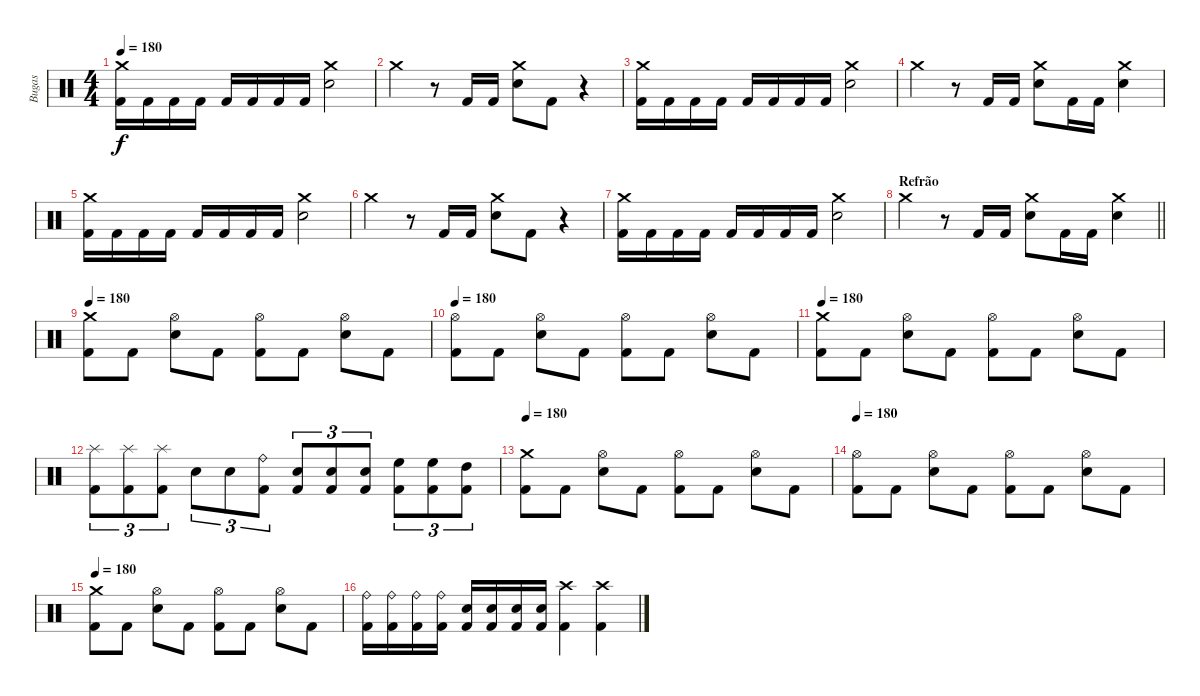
\track ("Bugas" "Bugas") {instrument percussion}
\staff {score}
\articulation defaults
\ts (4 4)
\tempo 180
\clef neutral
\ks c
("Crash medium (hit)" "Kick (hit) 2").16{dy f} "Kick (hit) 2".16 "Kick (hit) 2".16 "Kick (hit) 2".16 "Kick (hit) 2".16 "Kick (hit) 2".16 "Kick (hit) 2".16 "Kick (hit) 2".16 ("Crash medium (hit)" "Electric Snare (hit)").2 |
"Crash medium (hit)".4 r.8 "Kick (hit) 2".16 "Kick (hit) 2".16 ("Crash medium (hit)" "Electric Snare (hit)").8 "Kick (hit) 2".8 r.4 |
("Crash medium (hit)" "Kick (hit) 2").16 "Kick (hit) 2".16 "Kick (hit) 2".16 "Kick (hit) 2".16 "Kick (hit) 2".16 "Kick (hit) 2".16 "Kick (hit) 2".16 "Kick (hit) 2".16 ("Crash medium (hit)" "Electric Snare (hit)").2 |
"Crash medium (hit)".4 r.8 "Kick (hit) 2".16 "Kick (hit) 2".16 ("Crash medium (hit)" "Electric Snare (hit)").8 "Kick (hit) 2".16 "Kick (hit) 2".16 ("Crash medium (hit)" "Electric Snare (hit)").4 |
("Crash medium (hit)" "Kick (hit) 2").16 "Kick (hit) 2".16 "Kick (hit) 2".16 "Kick (hit) 2".16 "Kick (hit) 2".16 "Kick (hit) 2".16 "Kick (hit) 2".16 "Kick (hit) 2".16 ("Crash medium (hit)" "Electric Snare (hit)").2 |
"Crash medium (hit)".4 r.8 "Kick (hit) 2".16 "Kick (hit) 2".16 ("Crash medium (hit)" "Electric Snare (hit)").8 "Kick (hit) 2".8 r.4 |
("Crash medium (hit)" "Kick (hit) 2").16 "Kick (hit) 2".16 "Kick (hit) 2".16 "Kick (hit) 2".16 "Kick (hit) 2".16 "Kick (hit) 2".16 "Kick (hit) 2".16 "Kick (hit) 2".16 ("Crash medium (hit)" "Electric Snare (hit)").2 |
\section ("" "Refrão")
\barLineRight lightlight "Crash medium (hit)".4
r.8 "Kick (hit) 2".16 "Kick (hit) 2".16 ("Crash medium (hit)" "Electric Snare (hit)").8 "Kick (hit) 2".16 "Kick (hit) 2".16 ("Crash medium (hit)" "Electric Snare (hit)").4 |
\tempo 180
("Crash medium (hit)" "Kick (hit) 2").8 "Kick (hit) 2".8 ("Hi-Hat (open)" "Electric Snare (hit)").8 "Kick (hit) 2".8 ("Hi-Hat (open)" "Kick (hit) 2").8 "Kick (hit) 2".8 ("Hi-Hat (open)" "Electric Snare (hit)").8 "Kick (hit) 2".8 |
\tempo 180
("Hi-Hat (open)" "Kick (hit) 2").8 "Kick (hit) 2".8 ("Hi-Hat (open)" "Electric Snare (hit)").8 "Kick (hit) 2".8 ("Hi-Hat (open)" "Kick (hit) 2").8 "Kick (hit) 2".8 ("Hi-Hat (open)" "Electric Snare (hit)").8 "Kick (hit) 2".8 |
\tempo 180
("Crash medium (hit)" "Kick (hit) 2").8 "Kick (hit) 2".8 ("Hi-Hat (open)" "Electric Snare (hit)").8 "Kick (hit) 2".8 ("Hi-Hat (open)" "Kick (hit) 2").8 "Kick (hit) 2".8 ("Hi-Hat (open)" "Electric Snare (hit)").8 "Kick (hit) 2".8 |
("Splash (hit)" "Kick (hit) 2").8{tu (3 2)} ("Splash (hit)" "Kick (hit) 2").8{tu (3 2)} ("Splash (hit)" "Kick (hit) 2").8{tu (3 2)} "Electric Snare (hit)".8{tu (3 2)} "Electric Snare (hit)".8{tu (3 2)} ("Ride (bell)" "Kick (hit) 2").8{tu (3 2)} ("Electric Snare (hit)" "Kick (hit) 2").8{tu (3 2)} ("Electric Snare (hit)" "Kick (hit) 2").8{tu (3 2)} ("Electric Snare (hit)" "Kick (hit) 2").8{tu (3 2)} ("High Floor Tom (hit)" "Kick (hit) 2").8{tu (3 2)} ("High Floor Tom (hit)" "Kick (hit) 2").8{tu (3 2)} ("High Tom (hit)" "Kick (hit) 2").8{tu (3 2)} |
\tempo 180
("Crash medium (hit)" "Kick (hit) 2").8 "Kick (hit) 2".8 ("Hi-Hat (open)" "Electric Snare (hit)").8 "Kick (hit) 2".8 ("Hi-Hat (open)" "Kick (hit) 2").8 "Kick (hit) 2".8 ("Hi-Hat (open)" "Electric Snare (hit)").8 "Kick (hit) 2".8 |
\tempo 180
("Hi-Hat (open)" "Kick (hit) 2").8 "Kick (hit) 2".8 ("Hi-Hat (open)" "Electric Snare (hit)").8 "Kick (hit) 2".8 ("Hi-Hat (open)" "Kick (hit) 2").8 "Kick (hit) 2".8 ("Hi-Hat (open)" "Electric Snare (hit)").8 "Kick (hit) 2".8 |
\tempo 180
("Crash medium (hit)" "Kick (hit) 2").8 "Kick (hit) 2".8 ("Hi-Hat (open)" "Electric Snare (hit)").8 "Kick (hit) 2".8 ("Hi-Hat (open)" "Kick (hit) 2").8 "Kick (hit) 2".8 ("Hi-Hat (open)" "Electric Snare (hit)").8 "Kick (hit) 2".8 |
("Ride (bell)" "Kick (hit) 2").16 ("Ride (bell)" "Kick (hit) 2").16 ("Ride (bell)" "Kick (hit) 2").16 ("Ride (bell)" "Kick (hit) 2").16 ("Electric Snare (hit)" "Kick (hit) 2").16 ("Electric Snare (hit)" "Kick (hit) 2").16 ("Electric Snare (hit)" "Kick (hit) 2").16 ("Electric Snare (hit)" "Kick (hit) 2").16 ("Crash high (hit)" "Kick (hit) 2").4 ("Crash high (hit)" "Kick (hit) 2").4
